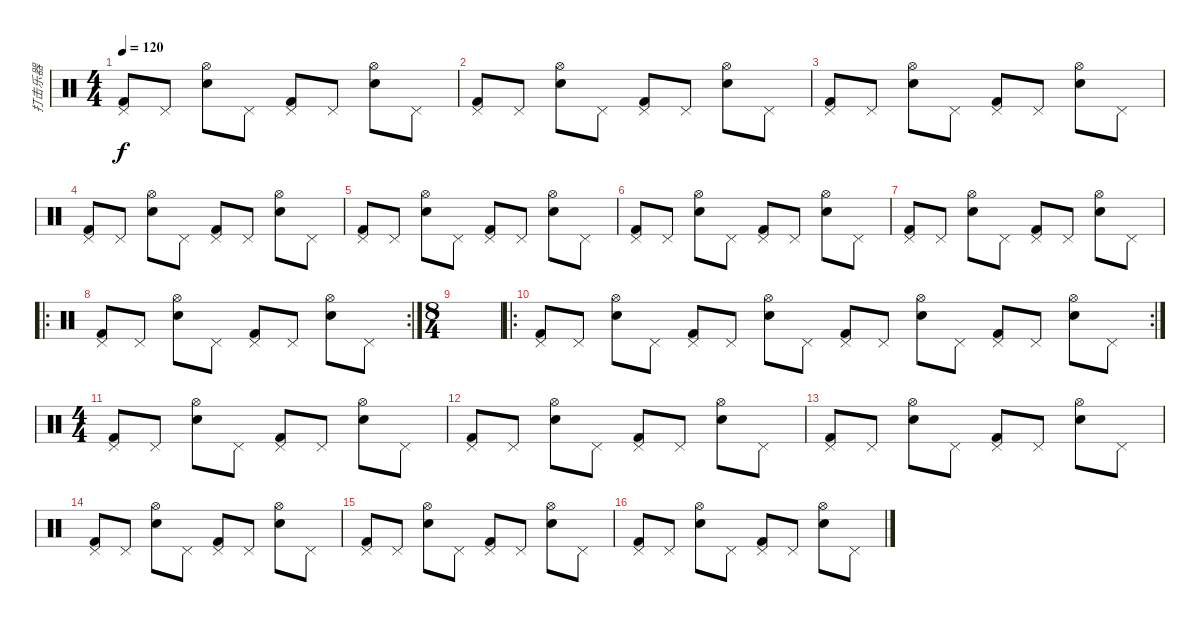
\track ("打击乐器" "打击乐器") {instrument percussion}
\staff {score}
\articulation defaults
\ts (4 4)
\tempo 120
\clef neutral
\ks c
("Pedal Hi-Hat (hit)" "Kick (hit) 2").8{dy f} "Pedal Hi-Hat (hit)".8 ("Hi-Hat (open)" "Snare (hit) 2").8 "Pedal Hi-Hat (hit)".8 ("Pedal Hi-Hat (hit)" "Kick (hit) 2").8 "Pedal Hi-Hat (hit)".8 ("Hi-Hat (open)" "Snare (hit) 2").8 "Pedal Hi-Hat (hit)".8 |
("Pedal Hi-Hat (hit)" "Kick (hit) 2").8 "Pedal Hi-Hat (hit)".8 ("Hi-Hat (open)" "Snare (hit) 2").8 "Pedal Hi-Hat (hit)".8 ("Pedal Hi-Hat (hit)" "Kick (hit) 2").8 "Pedal Hi-Hat (hit)".8 ("Hi-Hat (open)" "Snare (hit) 2").8 "Pedal Hi-Hat (hit)".8 |
("Pedal Hi-Hat (hit)" "Kick (hit) 2").8 "Pedal Hi-Hat (hit)".8 ("Hi-Hat (open)" "Snare (hit) 2").8 "Pedal Hi-Hat (hit)".8 ("Pedal Hi-Hat (hit)" "Kick (hit) 2").8 "Pedal Hi-Hat (hit)".8 ("Hi-Hat (open)" "Snare (hit) 2").8 "Pedal Hi-Hat (hit)".8 |
("Pedal Hi-Hat (hit)" "Kick (hit) 2").8 "Pedal Hi-Hat (hit)".8 ("Hi-Hat (open)" "Snare (hit) 2").8 "Pedal Hi-Hat (hit)".8 ("Pedal Hi-Hat (hit)" "Kick (hit) 2").8 "Pedal Hi-Hat (hit)".8 ("Hi-Hat (open)" "Snare (hit) 2").8 "Pedal Hi-Hat (hit)".8 |
("Pedal Hi-Hat (hit)" "Kick (hit) 2").8 "Pedal Hi-Hat (hit)".8 ("Hi-Hat (open)" "Snare (hit) 2").8 "Pedal Hi-Hat (hit)".8 ("Pedal Hi-Hat (hit)" "Kick (hit) 2").8 "Pedal Hi-Hat (hit)".8 ("Hi-Hat (open)" "Snare (hit) 2").8 "Pedal Hi-Hat (hit)".8 |
("Pedal Hi-Hat (hit)" "Kick (hit) 2").8 "Pedal Hi-Hat (hit)".8 ("Hi-Hat (open)" "Snare (hit) 2").8 "Pedal Hi-Hat (hit)".8 ("Pedal Hi-Hat (hit)" "Kick (hit) 2").8 "Pedal Hi-Hat (hit)".8 ("Hi-Hat (open)" "Snare (hit) 2").8 "Pedal Hi-Hat (hit)".8 |
("Pedal Hi-Hat (hit)" "Kick (hit) 2").8 "Pedal Hi-Hat (hit)".8 ("Hi-Hat (open)" "Snare (hit) 2").8 "Pedal Hi-Hat (hit)".8 ("Pedal Hi-Hat (hit)" "Kick (hit) 2").8 "Pedal Hi-Hat (hit)".8 ("Hi-Hat (open)" "Snare (hit) 2").8 "Pedal Hi-Hat (hit)".8 |
\ro
\rc 2
("Pedal Hi-Hat (hit)" "Kick (hit) 2").8 "Pedal Hi-Hat (hit)".8 ("Hi-Hat (open)" "Snare (hit) 2").8 "Pedal Hi-Hat (hit)".8 ("Pedal Hi-Hat (hit)" "Kick (hit) 2").8 "Pedal Hi-Hat (hit)".8 ("Hi-Hat (open)" "Snare (hit) 2").8 "Pedal Hi-Hat (hit)".8 |
\ts (8 4)
|
\ro
\rc 2
("Pedal Hi-Hat (hit)" "Kick (hit) 2").8 "Pedal Hi-Hat (hit)".8 ("Hi-Hat (open)" "Snare (hit) 2").8 "Pedal Hi-Hat (hit)".8 ("Pedal Hi-Hat (hit)" "Kick (hit) 2").8 "Pedal Hi-Hat (hit)".8 ("Hi-Hat (open)" "Snare (hit) 2").8 "Pedal Hi-Hat (hit)".8 ("Pedal Hi-Hat (hit)" "Kick (hit) 2").8 "Pedal Hi-Hat (hit)".8 ("Hi-Hat (open)" "Snare (hit) 2").8 "Pedal Hi-Hat (hit)".8 ("Pedal Hi-Hat (hit)" "Kick (hit) 2").8 "Pedal Hi-Hat (hit)".8 ("Hi-Hat (open)" "Snare (hit) 2").8 "Pedal Hi-Hat (hit)".8 |
\ts (4 4)
("Pedal Hi-Hat (hit)" "Kick (hit) 2").8 "Pedal Hi-Hat (hit)".8 ("Hi-Hat (open)" "Snare (hit) 2").8 "Pedal Hi-Hat (hit)".8 ("Pedal Hi-Hat (hit)" "Kick (hit) 2").8 "Pedal Hi-Hat (hit)".8 ("Hi-Hat (open)" "Snare (hit) 2").8 "Pedal Hi-Hat (hit)".8 |
("Pedal Hi-Hat (hit)" "Kick (hit) 2").8 "Pedal Hi-Hat (hit)".8 ("Hi-Hat (open)" "Snare (hit) 2").8 "Pedal Hi-Hat (hit)".8 ("Pedal Hi-Hat (hit)" "Kick (hit) 2").8 "Pedal Hi-Hat (hit)".8 ("Hi-Hat (open)" "Snare (hit) 2").8 "Pedal Hi-Hat (hit)".8 |
("Pedal Hi-Hat (hit)" "Kick (hit) 2").8 "Pedal Hi-Hat (hit)".8 ("Hi-Hat (open)" "Snare (hit) 2").8 "Pedal Hi-Hat (hit)".8 ("Pedal Hi-Hat (hit)" "Kick (hit) 2").8 "Pedal Hi-Hat (hit)".8 ("Hi-Hat (open)" "Snare (hit) 2").8 "Pedal Hi-Hat (hit)".8 |
("Pedal Hi-Hat (hit)" "Kick (hit) 2").8 "Pedal Hi-Hat (hit)".8 ("Hi-Hat (open)" "Snare (hit) 2").8 "Pedal Hi-Hat (hit)".8 ("Pedal Hi-Hat (hit)" "Kick (hit) 2").8 "Pedal Hi-Hat (hit)".8 ("Hi-Hat (open)" "Snare (hit) 2").8 "Pedal Hi-Hat (hit)".8 |
("Pedal Hi-Hat (hit)" "Kick (hit) 2").8 "Pedal Hi-Hat (hit)".8 ("Hi-Hat (open)" "Snare (hit) 2").8 "Pedal Hi-Hat (hit)".8 ("Pedal Hi-Hat (hit)" "Kick (hit) 2").8 "Pedal Hi-Hat (hit)".8 ("Hi-Hat (open)" "Snare (hit) 2").8 "Pedal Hi-Hat (hit)".8 |
("Pedal Hi-Hat (hit)" "Kick (hit) 2").8 "Pedal Hi-Hat (hit)".8 ("Hi-Hat (open)" "Snare (hit) 2").8 "Pedal Hi-Hat (hit)".8 ("Pedal Hi-Hat (hit)" "Kick (hit) 2").8 "Pedal Hi-Hat (hit)".8 ("Hi-Hat (open)" "Snare (hit) 2").8 "Pedal Hi-Hat (hit)".8
